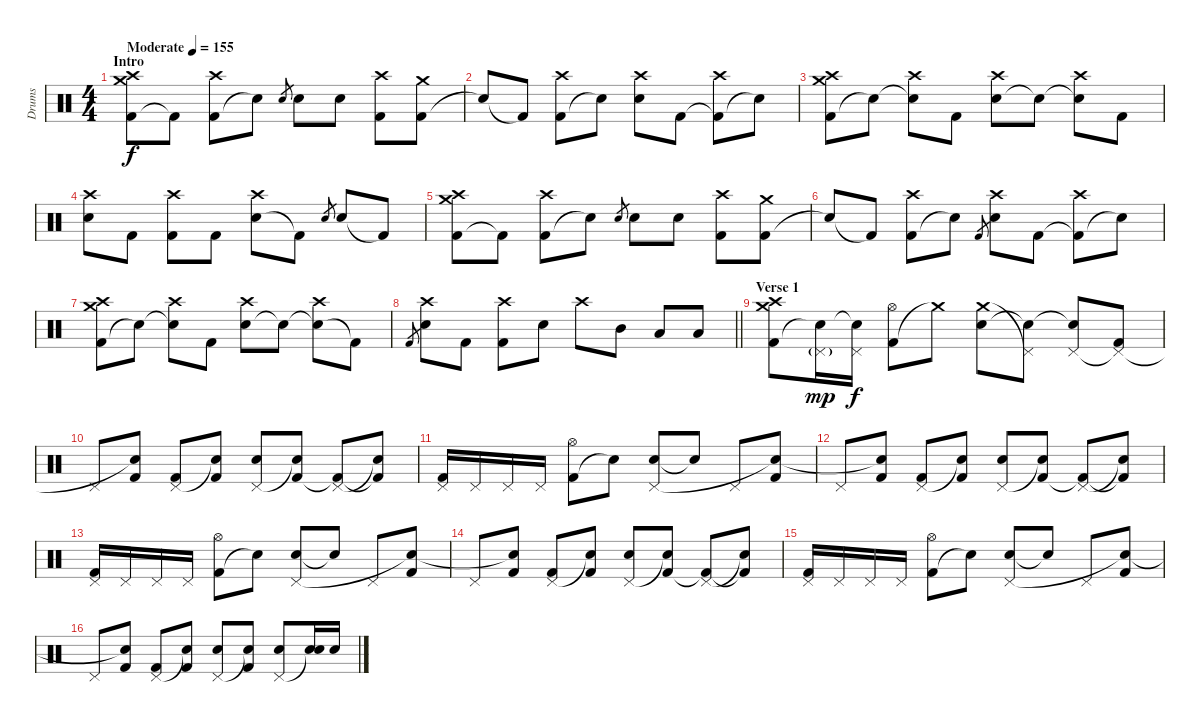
\track ("Drums" "Drums") {instrument percussion}
\staff {score}
\articulation defaults
\ts (4 4)
\section ("" "Intro")
\tempo (155 "Moderate")
\clef neutral
\ks c
("Kick (hit) 2" "Crash high (hit)" "Crash medium (hit)").8{dy f} "Kick (hit) 2"{t}.8 ("Kick (hit) 2" "Crash high (hit)").8 "Electric Snare (hit)"{t}.8 "Electric Snare (hit)".8{gr} "Electric Snare (hit)".8 "Electric Snare (hit)".8 ("Kick (hit) 2" "Crash high (hit)").8 ("Kick (hit) 2" "Crash medium (hit)").8 |
"Snare (hit)"{t}.8 "Kick (hit) 2"{t}.8 ("Kick (hit) 2" "Crash high (hit)").8 "Snare (hit)"{t}.8 ("Electric Snare (hit)" "Crash high (hit)").8 "Kick (hit) 2".8 ("Kick (hit) 2"{t} "Crash high (hit)").8 "Snare (hit)"{t}.8 |
("Kick (hit) 2" "Crash high (hit)" "Crash medium (hit)").8 "Snare (hit)"{t}.8 ("Snare (hit)"{t} "Crash high (hit)").8 "Kick (hit) 2".8 ("Electric Snare (hit)" "Crash high (hit)").8 "Snare (hit)"{t}.8 ("Snare (hit)"{t} "Crash high (hit)").8 "Kick (hit) 2".8 |
("Electric Snare (hit)" "Crash high (hit)").8 "Kick (hit) 2".8 ("Kick (hit) 2" "Crash high (hit)").8 "Kick (hit) 2".8 ("Electric Snare (hit)" "Crash high (hit)").8 "Kick (hit) 2"{t}.8 "Electric Snare (hit)".8{gr} "Electric Snare (hit)".8 "Kick (hit) 2"{t}.8 |
("Kick (hit) 2" "Crash high (hit)" "Crash medium (hit)").8 "Kick (hit) 2"{t}.8 ("Kick (hit) 2" "Crash high (hit)").8 "Electric Snare (hit)"{t}.8 "Electric Snare (hit)".8{gr} "Electric Snare (hit)".8 "Electric Snare (hit)".8 ("Kick (hit) 2" "Crash high (hit)").8 ("Kick (hit) 2" "Crash medium (hit)").8 |
"Snare (hit)"{t}.8 "Kick (hit) 2"{t}.8 ("Kick (hit) 2" "Crash high (hit)").8 "Snare (hit)"{t}.8 "Kick (hit) 2".8{gr} ("Electric Snare (hit)" "Crash high (hit)").8 "Kick (hit) 2".8 ("Kick (hit) 2"{t} "Crash high (hit)").8 "Snare (hit)"{t}.8 |
("Kick (hit) 2" "Crash high (hit)" "Crash medium (hit)").8 "Snare (hit)"{t}.8 ("Snare (hit)"{t} "Crash high (hit)").8 "Kick (hit) 2".8 ("Electric Snare (hit)" "Crash high (hit)").8 "Snare (hit)"{t}.8 ("Snare (hit)"{t} "Crash high (hit)").8 "Kick (hit) 2"{t}.8 |
\barLineRight lightlight "Kick (hit) 2".8{gr}
("Electric Snare (hit)" "Crash high (hit)").8 "Kick (hit) 2".8 ("Kick (hit) 2" "Crash high (hit)").8 "Electric Snare (hit)".8 "Crash high (hit)".8 "Mid Tom (hit)".8 "Low Tom (hit)".8 "Low Floor Tom (hit)".8 |
\section ("" "Verse 1")
("Kick (hit) 2" "Crash medium (hit)" "Crash high (hit)").8 ("Snare (hit)"{t} "Pedal Hi-Hat (hit)"{g}).16{dy mp} ("Snare (hit)"{t} "Pedal Hi-Hat (hit)").16{dy f} ("Kick (hit) 2" "Hi-Hat (open)").8 "Crash medium (hit)"{t}.8 ("Electric Snare (hit)" "Crash medium (hit)").8 ("Snare (hit)"{t} "Pedal Hi-Hat (hit)"{t}).8 ("Snare (hit)"{t} "Pedal Hi-Hat (hit)").8 ("Kick (hit) 2" "Pedal Hi-Hat (hit)"{t}).8 |
"Pedal Hi-Hat (hit)".8 ("Kick (hit) 2" "Snare (hit)"{t}).8 ("Kick (hit) 2" "Pedal Hi-Hat (hit)").8 ("Kick (hit) 2" "Snare (hit)"{t}).8 ("Electric Snare (hit)" "Pedal Hi-Hat (hit)").8 ("Kick (hit) 2" "Snare (hit)"{t}).8 ("Kick (hit) 2"{t} "Pedal Hi-Hat (hit)").8 ("Kick (hit) 2"{t} "Snare (hit)"{t}).8 |
("Kick (hit) 2" "Pedal Hi-Hat (hit)").16 "Pedal Hi-Hat (hit)".16 "Pedal Hi-Hat (hit)".16 "Pedal Hi-Hat (hit)".16 ("Kick (hit) 2" "Hi-Hat (open)").8 "Snare (hit)"{t}.8 ("Electric Snare (hit)" "Pedal Hi-Hat (hit)").8 "Snare (hit)"{t}.8 "Pedal Hi-Hat (hit)".8 ("Kick (hit) 2" "Snare (hit)"{t}).8 |
"Pedal Hi-Hat (hit)".8 ("Kick (hit) 2" "Snare (hit)"{t}).8 ("Kick (hit) 2" "Pedal Hi-Hat (hit)").8 ("Kick (hit) 2" "Snare (hit)"{t}).8 ("Electric Snare (hit)" "Pedal Hi-Hat (hit)").8 ("Kick (hit) 2" "Snare (hit)"{t}).8 ("Kick (hit) 2"{t} "Pedal Hi-Hat (hit)").8 ("Kick (hit) 2"{t} "Snare (hit)"{t}).8 |
("Kick (hit) 2" "Pedal Hi-Hat (hit)").16 "Pedal Hi-Hat (hit)".16 "Pedal Hi-Hat (hit)".16 "Pedal Hi-Hat (hit)".16 ("Kick (hit) 2" "Hi-Hat (open)").8 "Snare (hit)"{t}.8 ("Electric Snare (hit)" "Pedal Hi-Hat (hit)").8 "Snare (hit)"{t}.8 "Pedal Hi-Hat (hit)".8 ("Kick (hit) 2" "Snare (hit)"{t}).8 |
"Pedal Hi-Hat (hit)".8 ("Kick (hit) 2" "Snare (hit)"{t}).8 ("Kick (hit) 2" "Pedal Hi-Hat (hit)").8 ("Kick (hit) 2" "Snare (hit)"{t}).8 ("Electric Snare (hit)" "Pedal Hi-Hat (hit)").8 ("Kick (hit) 2" "Snare (hit)"{t}).8 ("Kick (hit) 2"{t} "Pedal Hi-Hat (hit)").8 ("Kick (hit) 2"{t} "Snare (hit)"{t}).8 |
("Kick (hit) 2" "Pedal Hi-Hat (hit)").16 "Pedal Hi-Hat (hit)".16 "Pedal Hi-Hat (hit)".16 "Pedal Hi-Hat (hit)".16 ("Kick (hit) 2" "Hi-Hat (open)").8 "Snare (hit)"{t}.8 ("Electric Snare (hit)" "Pedal Hi-Hat (hit)").8 "Snare (hit)"{t}.8 "Pedal Hi-Hat (hit)".8 ("Kick (hit) 2" "Snare (hit)"{t}).8 |
"Pedal Hi-Hat (hit)".8 ("Kick (hit) 2" "Snare (hit)"{t}).8 ("Kick (hit) 2" "Pedal Hi-Hat (hit)").8 ("Kick (hit) 2" "Snare (hit)"{t}).8 ("Electric Snare (hit)" "Pedal Hi-Hat (hit)").8 ("Kick (hit) 2" "Snare (hit)"{t}).8 ("Electric Snare (hit)" "Pedal Hi-Hat (hit)").8 ("Electric Snare (hit)" "Snare (hit)"{t}).16 "Electric Snare (hit)".16
